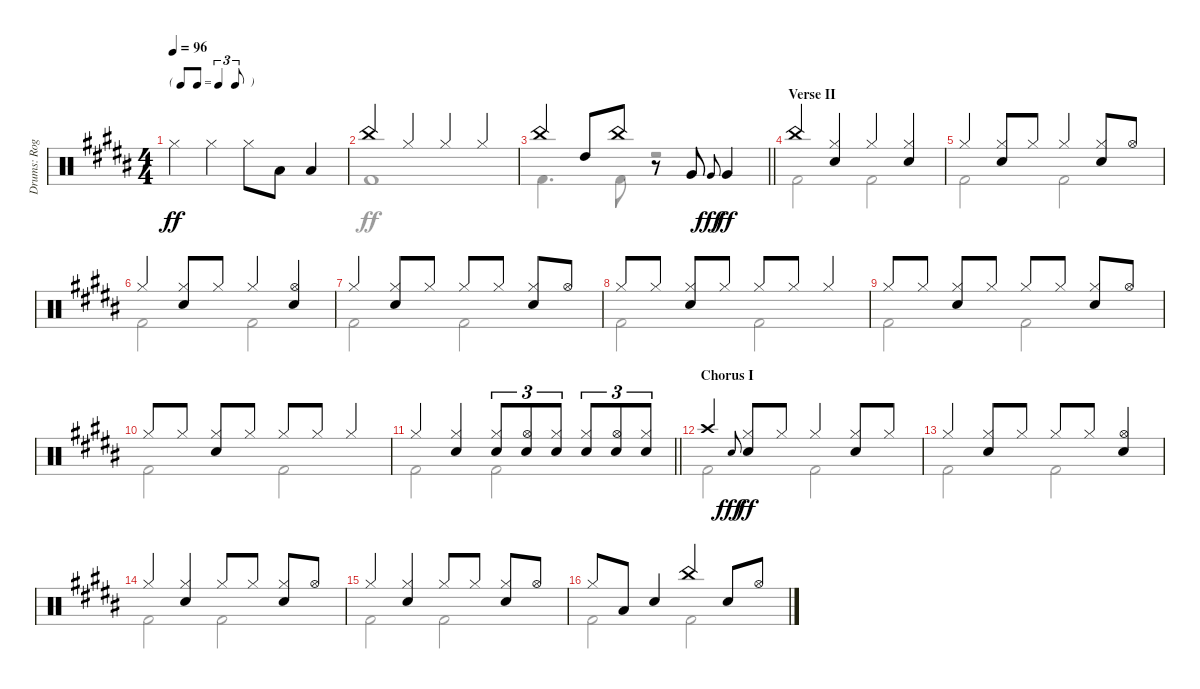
\track ("Drums: Roger" "Drums: Rog") {instrument percussion}
\staff {score}
\articulation defaults
\voice
\ts (4 4)
\tf triplet8th
\tempo 96
\clef neutral
\ks b "Hi-Hat (closed)".4{dy ff} "Hi-Hat (closed)".4 "Hi-Hat (closed)".8 "Low Tom (hit)".8 "Low Tom (hit)".4
|
"China (hit)".4 "Hi-Hat (closed)".4 "Hi-Hat (closed)".4 "Hi-Hat (closed)".4 |
\barLineRight lightlight "China (hit)".4 "High Tom (hit)".8 "China (hit)".8
r.8 "Very Low Tom (hit)".8 "Very Low Tom (hit)".8{gr onbeat dy fff} "Very Low Tom (hit)".4{dy ff} |
\section ("" "Verse II")
"China (hit)".4 ("Hi-Hat (closed)" "Snare (hit) 2").4 "Hi-Hat (closed)".4 ("Hi-Hat (closed)" "Snare (hit) 2").4 |
"Hi-Hat (closed)".4 ("Hi-Hat (closed)" "Snare (hit) 2").8 "Hi-Hat (closed)".8 "Hi-Hat (closed)".4 ("Hi-Hat (closed)" "Snare (hit) 2").8 "Hi-Hat (open)".8 |
"Hi-Hat (closed)".4 ("Hi-Hat (closed)" "Snare (hit) 2").8 "Hi-Hat (closed)".8 "Hi-Hat (closed)".4 ("Hi-Hat (open)" "Snare (hit) 2").4 |
"Hi-Hat (closed)".4 ("Hi-Hat (closed)" "Snare (hit) 2").8 "Hi-Hat (closed)".8 "Hi-Hat (closed)".8 "Hi-Hat (closed)".8 ("Hi-Hat (closed)" "Snare (hit) 2").8 "Hi-Hat (open)".8 |
"Hi-Hat (closed)".8 "Hi-Hat (closed)".8 ("Hi-Hat (closed)" "Snare (hit) 2").8 "Hi-Hat (closed)".8 "Hi-Hat (closed)".8 "Hi-Hat (closed)".8 "Hi-Hat (closed)".4 |
"Hi-Hat (closed)".8 "Hi-Hat (closed)".8 ("Hi-Hat (closed)" "Snare (hit) 2").8 "Hi-Hat (closed)".8 "Hi-Hat (closed)".8 "Hi-Hat (closed)".8 ("Hi-Hat (closed)" "Snare (hit) 2").8 "Hi-Hat (open)".8 |
"Hi-Hat (closed)".8 "Hi-Hat (closed)".8 ("Hi-Hat (closed)" "Snare (hit) 2").8 "Hi-Hat (closed)".8 "Hi-Hat (closed)".8 "Hi-Hat (closed)".8 "Hi-Hat (closed)".4 |
\barLineRight lightlight "Hi-Hat (closed)".4
("Hi-Hat (closed)" "Snare (hit) 2").4 ("Hi-Hat (closed)" "Snare (hit) 2").8{tu (3 2)} ("Hi-Hat (open)" "Snare (hit) 2").8{tu (3 2)} ("Hi-Hat (closed)" "Snare (hit) 2").8{tu (3 2)} ("Hi-Hat (closed)" "Snare (hit) 2").8{tu (3 2)} ("Hi-Hat (open)" "Snare (hit) 2").8{tu (3 2)} ("Hi-Hat (closed)" "Snare (hit) 2").8{tu (3 2)} |
\section ("" "Chorus I")
"Crash high (hit)".4 "Electric Snare (hit)".8{gr onbeat dy fff} ("Hi-Hat (closed)" "Snare (hit) 2").8{dy ff} "Hi-Hat (closed)".8 "Hi-Hat (closed)".4 ("Hi-Hat (closed)" "Snare (hit) 2").8 "Hi-Hat (closed)".8 |
"Hi-Hat (closed)".4 ("Hi-Hat (closed)" "Snare (hit) 2").8 "Hi-Hat (closed)".8 "Hi-Hat (closed)".8 "Hi-Hat (closed)".8 ("Hi-Hat (open)" "Snare (hit) 2").4 |
"Hi-Hat (closed)".4 ("Hi-Hat (closed)" "Snare (hit) 2").4 "Hi-Hat (closed)".8 "Hi-Hat (closed)".8 ("Hi-Hat (closed)" "Snare (hit) 2").8 "Hi-Hat (open)".8 |
"Hi-Hat (closed)".4 ("Hi-Hat (closed)" "Snare (hit) 2").4 "Hi-Hat (closed)".8 "Hi-Hat (closed)".8 ("Hi-Hat (closed)" "Snare (hit) 2").8 "Hi-Hat (open)".8 |
"Hi-Hat (closed)".8 "Low Tom (hit)".8 "Snare (hit) 2".4 "China (hit)".4 "Snare (hit) 2".8 "Hi-Hat (open)".8
\voice
\clef neutral
\ottava regular
\simile none
\ks b
|
"Kick (hit) 2".1 |
\barLineRight lightlight "Kick (hit) 2".4{d} "Kick (hit) 2".8
r.2 |
"Kick (hit) 2".2 "Kick (hit) 2".2 |
"Kick (hit) 2".2 "Kick (hit) 2".2 |
"Kick (hit) 2".2 "Kick (hit) 2".2 |
"Kick (hit) 2".2 "Kick (hit) 2".2 |
"Kick (hit) 2".2 "Kick (hit) 2".2 |
"Kick (hit) 2".2 "Kick (hit) 2".2 |
"Kick (hit) 2".2 "Kick (hit) 2".2 |
\barLineRight lightlight "Kick (hit) 2".2 "Kick (hit) 2".2
|
"Kick (hit) 2".2 "Kick (hit) 2".2 |
"Kick (hit) 2".2 "Kick (hit) 2".2 |
"Kick (hit) 2".2 "Kick (hit) 2".2 |
"Kick (hit) 2".2 "Kick (hit) 2".2 |
"Kick (hit) 2".2 "Kick (hit) 2".2
